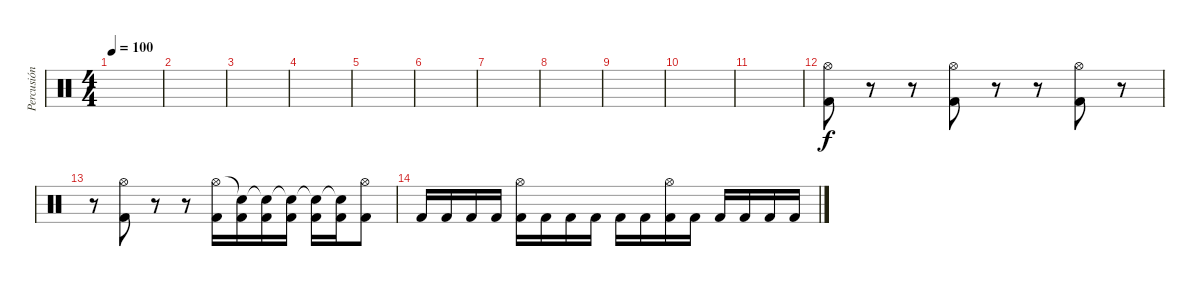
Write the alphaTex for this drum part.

\track ("Percusión" "Percusión") {instrument percussion}
\staff {score}
\articulation defaults
\ts (4 4)
\tempo 100
\clef neutral
\ks c
|
|
|
|
|
|
|
|
|
|
|
("Hi-Hat (open)" "Kick (hit) 2").8 r.8 r.8 ("Hi-Hat (open)" "Kick (hit) 2").8 r.8 r.8 ("Hi-Hat (open)" "Kick (hit) 2").8 r.8 |
r.8 ("Hi-Hat (open)" "Kick (hit) 2").8 r.8 r.8 ("Hi-Hat (open)" "Kick (hit) 2").16 ("Snare (hit)"{t} "Kick (hit) 2").16 ("Snare (hit)"{t} "Kick (hit) 2").16 ("Snare (hit)"{t} "Kick (hit) 2").16 ("Snare (hit)"{t} "Kick (hit) 2").16 ("Snare (hit)"{t} "Kick (hit) 2").16 ("Hi-Hat (open)" "Kick (hit) 2").8 |
"Kick (hit) 2".16 "Kick (hit) 2".16 "Kick (hit) 2".16 "Kick (hit) 2".16 ("Hi-Hat (open)" "Kick (hit) 2").16 "Kick (hit) 2".16 "Kick (hit) 2".16 "Kick (hit) 2".16 "Kick (hit) 2".16 "Kick (hit) 2".16 ("Hi-Hat (open)" "Kick (hit) 2").16 "Kick (hit) 2".16 "Kick (hit) 2".16 "Kick (hit) 2".16 "Kick (hit) 2".16 "Kick (hit) 2".16
